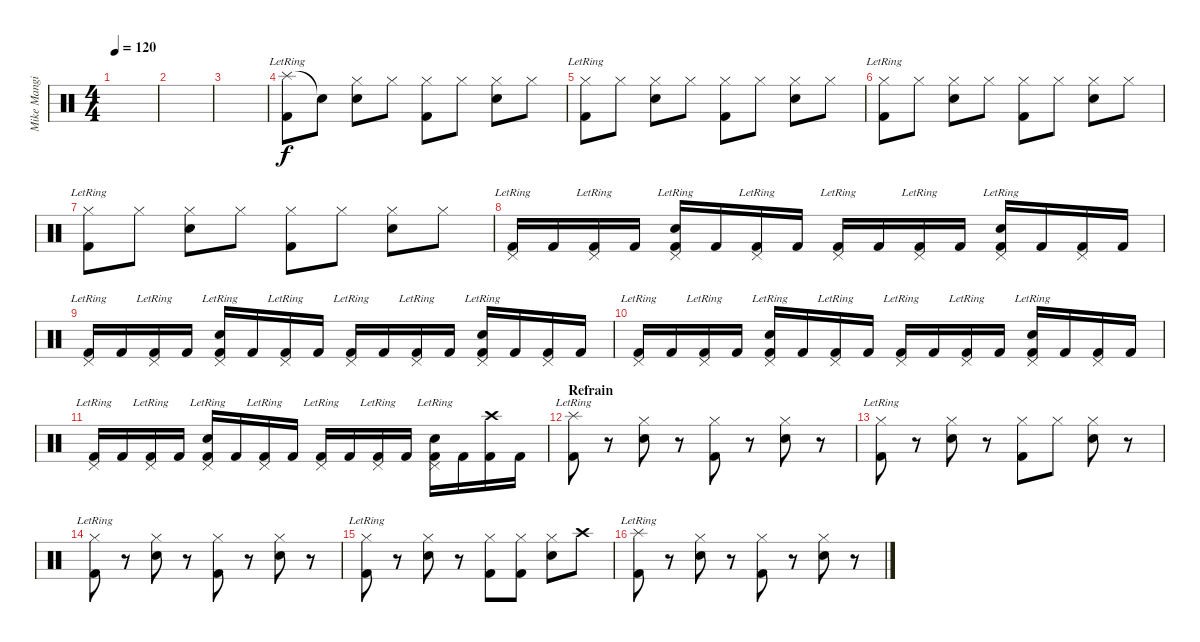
\track ("Mike Mangini" "Mike Mangi") {instrument percussion}
\staff {score}
\articulation defaults
\ts (4 4)
\tempo 120
\clef neutral
\ks c
|
|
|
("Splash (hit)" "Kick (hit) 2"{lr}).8 "Snare (hit)"{t}.8 ("Hi-Hat (closed)" "Snare (hit) 2").8 "Hi-Hat (closed)".8 ("Hi-Hat (closed)" "Kick (hit) 2").8 "Hi-Hat (closed)".8 ("Hi-Hat (closed)" "Snare (hit) 2").8 "Hi-Hat (closed)".8 |
("Hi-Hat (closed)" "Kick (hit) 2"{lr}).8 "Hi-Hat (closed)".8 ("Hi-Hat (closed)" "Snare (hit) 2").8 "Hi-Hat (closed)".8 ("Hi-Hat (closed)" "Kick (hit) 2").8 "Hi-Hat (closed)".8 ("Hi-Hat (closed)" "Snare (hit) 2").8 "Hi-Hat (closed)".8 |
("Hi-Hat (closed)" "Kick (hit) 2"{lr}).8 "Hi-Hat (closed)".8 ("Hi-Hat (closed)" "Snare (hit) 2").8 "Hi-Hat (closed)".8 ("Hi-Hat (closed)" "Kick (hit) 2").8 "Hi-Hat (closed)".8 ("Hi-Hat (closed)" "Snare (hit) 2").8 "Hi-Hat (closed)".8 |
("Hi-Hat (closed)" "Kick (hit) 2"{lr}).8 "Hi-Hat (closed)".8 ("Hi-Hat (closed)" "Snare (hit) 2").8 "Hi-Hat (closed)".8 ("Hi-Hat (closed)" "Kick (hit) 2").8 "Hi-Hat (closed)".8 ("Hi-Hat (closed)" "Snare (hit) 2").8 "Hi-Hat (closed)".8 |
("Pedal Hi-Hat (hit)"{lr} "Kick (hit) 2"{lr}).16 "Kick (hit) 2".16 ("Pedal Hi-Hat (hit)"{lr} "Kick (hit) 2").16 "Kick (hit) 2".16 ("Pedal Hi-Hat (hit)"{lr} "Snare (hit) 2"{lr} "Kick (hit) 2").16 "Kick (hit) 2".16 ("Pedal Hi-Hat (hit)"{lr} "Kick (hit) 2").16 "Kick (hit) 2".16 ("Pedal Hi-Hat (hit)"{lr} "Kick (hit) 2").16 "Kick (hit) 2".16 ("Pedal Hi-Hat (hit)"{lr} "Kick (hit) 2").16 "Kick (hit) 2".16 ("Pedal Hi-Hat (hit)"{lr} "Snare (hit) 2"{lr} "Kick (hit) 2").16 "Kick (hit) 2".16 ("Pedal Hi-Hat (hit)" "Kick (hit) 2").16 "Kick (hit) 2".16 |
("Pedal Hi-Hat (hit)"{lr} "Kick (hit) 2"{lr}).16 "Kick (hit) 2".16 ("Pedal Hi-Hat (hit)"{lr} "Kick (hit) 2").16 "Kick (hit) 2".16 ("Pedal Hi-Hat (hit)"{lr} "Snare (hit) 2"{lr} "Kick (hit) 2").16 "Kick (hit) 2".16 ("Pedal Hi-Hat (hit)"{lr} "Kick (hit) 2").16 "Kick (hit) 2".16 ("Pedal Hi-Hat (hit)"{lr} "Kick (hit) 2").16 "Kick (hit) 2".16 ("Pedal Hi-Hat (hit)"{lr} "Kick (hit) 2").16 "Kick (hit) 2".16 ("Pedal Hi-Hat (hit)"{lr} "Snare (hit) 2"{lr} "Kick (hit) 2").16 "Kick (hit) 2".16 ("Pedal Hi-Hat (hit)" "Kick (hit) 2").16 "Kick (hit) 2".16 |
("Pedal Hi-Hat (hit)"{lr} "Kick (hit) 2"{lr}).16 "Kick (hit) 2".16 ("Pedal Hi-Hat (hit)"{lr} "Kick (hit) 2").16 "Kick (hit) 2".16 ("Pedal Hi-Hat (hit)"{lr} "Snare (hit) 2"{lr} "Kick (hit) 2").16 "Kick (hit) 2".16 ("Pedal Hi-Hat (hit)"{lr} "Kick (hit) 2").16 "Kick (hit) 2".16 ("Pedal Hi-Hat (hit)"{lr} "Kick (hit) 2").16 "Kick (hit) 2".16 ("Pedal Hi-Hat (hit)"{lr} "Kick (hit) 2").16 "Kick (hit) 2".16 ("Pedal Hi-Hat (hit)"{lr} "Snare (hit) 2"{lr} "Kick (hit) 2").16 "Kick (hit) 2".16 ("Pedal Hi-Hat (hit)" "Kick (hit) 2").16 "Kick (hit) 2".16 |
("Pedal Hi-Hat (hit)"{lr} "Kick (hit) 2"{lr}).16 "Kick (hit) 2".16 ("Pedal Hi-Hat (hit)"{lr} "Kick (hit) 2").16 "Kick (hit) 2".16 ("Pedal Hi-Hat (hit)"{lr} "Snare (hit) 2"{lr} "Kick (hit) 2").16 "Kick (hit) 2".16 ("Pedal Hi-Hat (hit)"{lr} "Kick (hit) 2").16 "Kick (hit) 2".16 ("Pedal Hi-Hat (hit)"{lr} "Kick (hit) 2").16 "Kick (hit) 2".16 ("Pedal Hi-Hat (hit)"{lr} "Kick (hit) 2").16 "Kick (hit) 2".16 ("Pedal Hi-Hat (hit)" "Snare (hit) 2"{lr} "Kick (hit) 2").16 "Kick (hit) 2".16 ("Crash high (hit)" "Kick (hit) 2").16 "Kick (hit) 2".16 |
\section ("" "Refrain")
("Splash (hit)" "Kick (hit) 2"{lr}).8 r.8 ("Hi-Hat (closed)" "Snare (hit) 2").8 r.8 ("Hi-Hat (closed)" "Kick (hit) 2").8 r.8 ("Hi-Hat (closed)" "Snare (hit) 2").8 r.8 |
("Hi-Hat (closed)" "Kick (hit) 2"{lr}).8 r.8 ("Hi-Hat (closed)" "Snare (hit) 2").8 r.8 ("Hi-Hat (closed)" "Kick (hit) 2").8 "Hi-Hat (closed)".8 ("Hi-Hat (closed)" "Snare (hit) 2").8 r.8 |
("Hi-Hat (closed)" "Kick (hit) 2"{lr}).8 r.8 ("Hi-Hat (closed)" "Snare (hit) 2").8 r.8 ("Hi-Hat (closed)" "Kick (hit) 2").8 r.8 ("Hi-Hat (closed)" "Snare (hit) 2").8 r.8 |
("Hi-Hat (closed)" "Kick (hit) 2"{lr}).8 r.8 ("Hi-Hat (closed)" "Snare (hit) 2").8 r.8 ("Hi-Hat (closed)" "Kick (hit) 2").8 ("Hi-Hat (closed)" "Kick (hit) 2").8 ("Hi-Hat (closed)" "Snare (hit) 2").8 "Crash high (hit)".8 |
("Splash (hit)" "Kick (hit) 2"{lr}).8 r.8 ("Hi-Hat (closed)" "Snare (hit) 2").8 r.8 ("Hi-Hat (closed)" "Kick (hit) 2").8 r.8 ("Hi-Hat (closed)" "Snare (hit) 2").8 r.8
